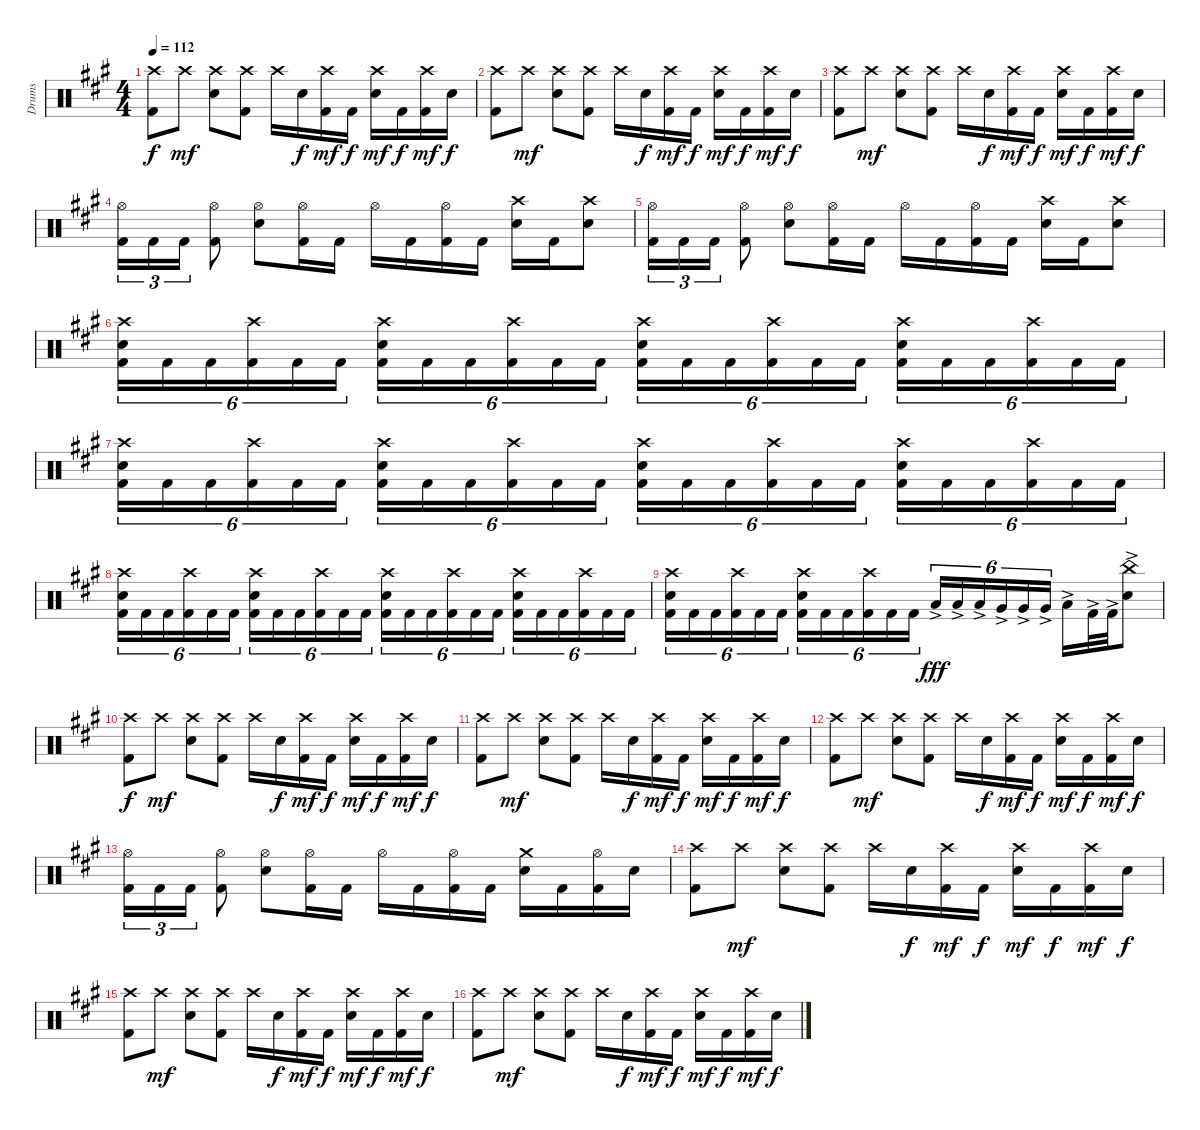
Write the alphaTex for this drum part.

\track ("Drums" "Drums") {instrument percussion}
\staff {score}
\articulation defaults
\ts (4 4)
\tempo 112
\clef neutral
\ks f#minor
("Crash high (hit)" "Kick (hit) 2").8{dy f} "Crash high (hit)".8{dy mf} ("Crash high (hit)" "Snare (hit) 2").8 ("Crash high (hit)" "Kick (hit) 2").8 "Crash high (hit)".16 "Snare (hit) 2".16{dy f} ("Crash high (hit)" "Kick (hit) 2").16{dy mf} "Kick (hit) 2".16{dy f} ("Crash high (hit)" "Snare (hit) 2").16{dy mf} "Kick (hit) 2".16{dy f} ("Crash high (hit)" "Kick (hit) 2").16{dy mf} "Snare (hit) 2".16{dy f} |
("Crash high (hit)" "Kick (hit) 2").8 "Crash high (hit)".8{dy mf} ("Crash high (hit)" "Snare (hit) 2").8 ("Crash high (hit)" "Kick (hit) 2").8 "Crash high (hit)".16 "Snare (hit) 2".16{dy f} ("Crash high (hit)" "Kick (hit) 2").16{dy mf} "Kick (hit) 2".16{dy f} ("Crash high (hit)" "Snare (hit) 2").16{dy mf} "Kick (hit) 2".16{dy f} ("Crash high (hit)" "Kick (hit) 2").16{dy mf} "Snare (hit) 2".16{dy f} |
("Crash high (hit)" "Kick (hit) 2").8 "Crash high (hit)".8{dy mf} ("Crash high (hit)" "Snare (hit) 2").8 ("Crash high (hit)" "Kick (hit) 2").8 "Crash high (hit)".16 "Snare (hit) 2".16{dy f} ("Crash high (hit)" "Kick (hit) 2").16{dy mf} "Kick (hit) 2".16{dy f} ("Crash high (hit)" "Snare (hit) 2").16{dy mf} "Kick (hit) 2".16{dy f} ("Crash high (hit)" "Kick (hit) 2").16{dy mf} "Snare (hit) 2".16{dy f} |
("Hi-Hat (open)" "Kick (hit) 2").16{tu (3 2)} "Kick (hit) 2".16{tu (3 2)} "Kick (hit) 2".16{tu (3 2)} ("Hi-Hat (open)" "Kick (hit) 2").8 ("Hi-Hat (open)" "Snare (hit) 2").8 ("Hi-Hat (open)" "Kick (hit) 2").16 "Kick (hit) 2".16 "Hi-Hat (open)".16 "Kick (hit) 2".16 ("Hi-Hat (open)" "Kick (hit) 2").16 "Kick (hit) 2".16 ("Crash high (hit)" "Snare (hit) 2").16 "Kick (hit) 2".16 ("Crash high (hit)" "Snare (hit) 2").8 |
("Hi-Hat (open)" "Kick (hit) 2").16{tu (3 2)} "Kick (hit) 2".16{tu (3 2)} "Kick (hit) 2".16{tu (3 2)} ("Hi-Hat (open)" "Kick (hit) 2").8 ("Hi-Hat (open)" "Snare (hit) 2").8 ("Hi-Hat (open)" "Kick (hit) 2").16 "Kick (hit) 2".16 "Hi-Hat (open)".16 "Kick (hit) 2".16 ("Hi-Hat (open)" "Kick (hit) 2").16 "Kick (hit) 2".16 ("Crash high (hit)" "Snare (hit) 2").16 "Kick (hit) 2".16 ("Crash high (hit)" "Snare (hit) 2").8 |
("Crash high (hit)" "Snare (hit) 2" "Kick (hit) 2").16{tu (6 4)} "Kick (hit) 2".16{tu (6 4)} "Kick (hit) 2".16{tu (6 4)} ("Crash high (hit)" "Kick (hit) 2").16{tu (6 4)} "Kick (hit) 2".16{tu (6 4)} "Kick (hit) 2".16{tu (6 4)} ("Crash high (hit)" "Snare (hit) 2" "Kick (hit) 2").16{tu (6 4)} "Kick (hit) 2".16{tu (6 4)} "Kick (hit) 2".16{tu (6 4)} ("Crash high (hit)" "Kick (hit) 2").16{tu (6 4)} "Kick (hit) 2".16{tu (6 4)} "Kick (hit) 2".16{tu (6 4)} ("Crash high (hit)" "Snare (hit) 2" "Kick (hit) 2").16{tu (6 4)} "Kick (hit) 2".16{tu (6 4)} "Kick (hit) 2".16{tu (6 4)} ("Crash high (hit)" "Kick (hit) 2").16{tu (6 4)} "Kick (hit) 2".16{tu (6 4)} "Kick (hit) 2".16{tu (6 4)} ("Crash high (hit)" "Snare (hit) 2" "Kick (hit) 2").16{tu (6 4)} "Kick (hit) 2".16{tu (6 4)} "Kick (hit) 2".16{tu (6 4)} ("Crash high (hit)" "Kick (hit) 2").16{tu (6 4)} "Kick (hit) 2".16{tu (6 4)} "Kick (hit) 2".16{tu (6 4)} |
("Crash high (hit)" "Snare (hit) 2" "Kick (hit) 2").16{tu (6 4)} "Kick (hit) 2".16{tu (6 4)} "Kick (hit) 2".16{tu (6 4)} ("Crash high (hit)" "Kick (hit) 2").16{tu (6 4)} "Kick (hit) 2".16{tu (6 4)} "Kick (hit) 2".16{tu (6 4)} ("Crash high (hit)" "Snare (hit) 2" "Kick (hit) 2").16{tu (6 4)} "Kick (hit) 2".16{tu (6 4)} "Kick (hit) 2".16{tu (6 4)} ("Crash high (hit)" "Kick (hit) 2").16{tu (6 4)} "Kick (hit) 2".16{tu (6 4)} "Kick (hit) 2".16{tu (6 4)} ("Crash high (hit)" "Snare (hit) 2" "Kick (hit) 2").16{tu (6 4)} "Kick (hit) 2".16{tu (6 4)} "Kick (hit) 2".16{tu (6 4)} ("Crash high (hit)" "Kick (hit) 2").16{tu (6 4)} "Kick (hit) 2".16{tu (6 4)} "Kick (hit) 2".16{tu (6 4)} ("Crash high (hit)" "Snare (hit) 2" "Kick (hit) 2").16{tu (6 4)} "Kick (hit) 2".16{tu (6 4)} "Kick (hit) 2".16{tu (6 4)} ("Crash high (hit)" "Kick (hit) 2").16{tu (6 4)} "Kick (hit) 2".16{tu (6 4)} "Kick (hit) 2".16{tu (6 4)} |
("Crash high (hit)" "Snare (hit) 2" "Kick (hit) 2").16{tu (6 4)} "Kick (hit) 2".16{tu (6 4)} "Kick (hit) 2".16{tu (6 4)} ("Crash high (hit)" "Kick (hit) 2").16{tu (6 4)} "Kick (hit) 2".16{tu (6 4)} "Kick (hit) 2".16{tu (6 4)} ("Crash high (hit)" "Snare (hit) 2" "Kick (hit) 2").16{tu (6 4)} "Kick (hit) 2".16{tu (6 4)} "Kick (hit) 2".16{tu (6 4)} ("Crash high (hit)" "Kick (hit) 2").16{tu (6 4)} "Kick (hit) 2".16{tu (6 4)} "Kick (hit) 2".16{tu (6 4)} ("Crash high (hit)" "Snare (hit) 2" "Kick (hit) 2").16{tu (6 4)} "Kick (hit) 2".16{tu (6 4)} "Kick (hit) 2".16{tu (6 4)} ("Crash high (hit)" "Kick (hit) 2").16{tu (6 4)} "Kick (hit) 2".16{tu (6 4)} "Kick (hit) 2".16{tu (6 4)} ("Crash high (hit)" "Snare (hit) 2" "Kick (hit) 2").16{tu (6 4)} "Kick (hit) 2".16{tu (6 4)} "Kick (hit) 2".16{tu (6 4)} ("Crash high (hit)" "Kick (hit) 2").16{tu (6 4)} "Kick (hit) 2".16{tu (6 4)} "Kick (hit) 2".16{tu (6 4)} |
("Crash high (hit)" "Snare (hit) 2" "Kick (hit) 2").16{tu (6 4)} "Kick (hit) 2".16{tu (6 4)} "Kick (hit) 2".16{tu (6 4)} ("Crash high (hit)" "Kick (hit) 2").16{tu (6 4)} "Kick (hit) 2".16{tu (6 4)} "Kick (hit) 2".16{tu (6 4)} ("Crash high (hit)" "Snare (hit) 2" "Kick (hit) 2").16{tu (6 4)} "Kick (hit) 2".16{tu (6 4)} "Kick (hit) 2".16{tu (6 4)} ("Crash high (hit)" "Kick (hit) 2").16{tu (6 4)} "Kick (hit) 2".16{tu (6 4)} "Kick (hit) 2".16{tu (6 4)} "Low Tom (hit)"{ac}.16{tu (6 4) dy fff} "Low Tom (hit)"{ac}.16{tu (6 4)} "Low Tom (hit)"{ac}.16{tu (6 4)} "Very Low Tom (hit)"{ac}.16{tu (6 4)} "Very Low Tom (hit)"{ac}.16{tu (6 4)} "Very Low Tom (hit)"{ac}.16{tu (6 4)} "Low Floor Tom (hit)"{ac}.16 "Kick (hit) 2"{ac}.32 "Kick (hit) 2"{ac}.32 ("China (hit)"{ac} "Snare (hit) 2").8 |
("Crash high (hit)" "Kick (hit) 2").8{dy f} "Crash high (hit)".8{dy mf} ("Crash high (hit)" "Snare (hit) 2").8 ("Crash high (hit)" "Kick (hit) 2").8 "Crash high (hit)".16 "Snare (hit) 2".16{dy f} ("Crash high (hit)" "Kick (hit) 2").16{dy mf} "Kick (hit) 2".16{dy f} ("Crash high (hit)" "Snare (hit) 2").16{dy mf} "Kick (hit) 2".16{dy f} ("Crash high (hit)" "Kick (hit) 2").16{dy mf} "Snare (hit) 2".16{dy f} |
("Crash high (hit)" "Kick (hit) 2").8 "Crash high (hit)".8{dy mf} ("Crash high (hit)" "Snare (hit) 2").8 ("Crash high (hit)" "Kick (hit) 2").8 "Crash high (hit)".16 "Snare (hit) 2".16{dy f} ("Crash high (hit)" "Kick (hit) 2").16{dy mf} "Kick (hit) 2".16{dy f} ("Crash high (hit)" "Snare (hit) 2").16{dy mf} "Kick (hit) 2".16{dy f} ("Crash high (hit)" "Kick (hit) 2").16{dy mf} "Snare (hit) 2".16{dy f} |
("Crash high (hit)" "Kick (hit) 2").8 "Crash high (hit)".8{dy mf} ("Crash high (hit)" "Snare (hit) 2").8 ("Crash high (hit)" "Kick (hit) 2").8 "Crash high (hit)".16 "Snare (hit) 2".16{dy f} ("Crash high (hit)" "Kick (hit) 2").16{dy mf} "Kick (hit) 2".16{dy f} ("Crash high (hit)" "Snare (hit) 2").16{dy mf} "Kick (hit) 2".16{dy f} ("Crash high (hit)" "Kick (hit) 2").16{dy mf} "Snare (hit) 2".16{dy f} |
("Hi-Hat (open)" "Kick (hit) 2").16{tu (3 2)} "Kick (hit) 2".16{tu (3 2)} "Kick (hit) 2".16{tu (3 2)} ("Hi-Hat (open)" "Kick (hit) 2").8 ("Hi-Hat (open)" "Snare (hit) 2").8 ("Hi-Hat (open)" "Kick (hit) 2").16 "Kick (hit) 2".16 "Hi-Hat (open)".16 "Kick (hit) 2".16 ("Hi-Hat (open)" "Kick (hit) 2").16 "Kick (hit) 2".16 ("Crash medium (hit)" "Snare (hit) 2").16 "Kick (hit) 2".16 ("Hi-Hat (open)" "Kick (hit) 2").16 "Snare (hit) 2".16 |
("Crash high (hit)" "Kick (hit) 2").8 "Crash high (hit)".8{dy mf} ("Crash high (hit)" "Snare (hit) 2").8 ("Crash high (hit)" "Kick (hit) 2").8 "Crash high (hit)".16 "Snare (hit) 2".16{dy f} ("Crash high (hit)" "Kick (hit) 2").16{dy mf} "Kick (hit) 2".16{dy f} ("Crash high (hit)" "Snare (hit) 2").16{dy mf} "Kick (hit) 2".16{dy f} ("Crash high (hit)" "Kick (hit) 2").16{dy mf} "Snare (hit) 2".16{dy f} |
("Crash high (hit)" "Kick (hit) 2").8 "Crash high (hit)".8{dy mf} ("Crash high (hit)" "Snare (hit) 2").8 ("Crash high (hit)" "Kick (hit) 2").8 "Crash high (hit)".16 "Snare (hit) 2".16{dy f} ("Crash high (hit)" "Kick (hit) 2").16{dy mf} "Kick (hit) 2".16{dy f} ("Crash high (hit)" "Snare (hit) 2").16{dy mf} "Kick (hit) 2".16{dy f} ("Crash high (hit)" "Kick (hit) 2").16{dy mf} "Snare (hit) 2".16{dy f} |
("Crash high (hit)" "Kick (hit) 2").8 "Crash high (hit)".8{dy mf} ("Crash high (hit)" "Snare (hit) 2").8 ("Crash high (hit)" "Kick (hit) 2").8 "Crash high (hit)".16 "Snare (hit) 2".16{dy f} ("Crash high (hit)" "Kick (hit) 2").16{dy mf} "Kick (hit) 2".16{dy f} ("Crash high (hit)" "Snare (hit) 2").16{dy mf} "Kick (hit) 2".16{dy f} ("Crash high (hit)" "Kick (hit) 2").16{dy mf} "Snare (hit) 2".16{dy f}
